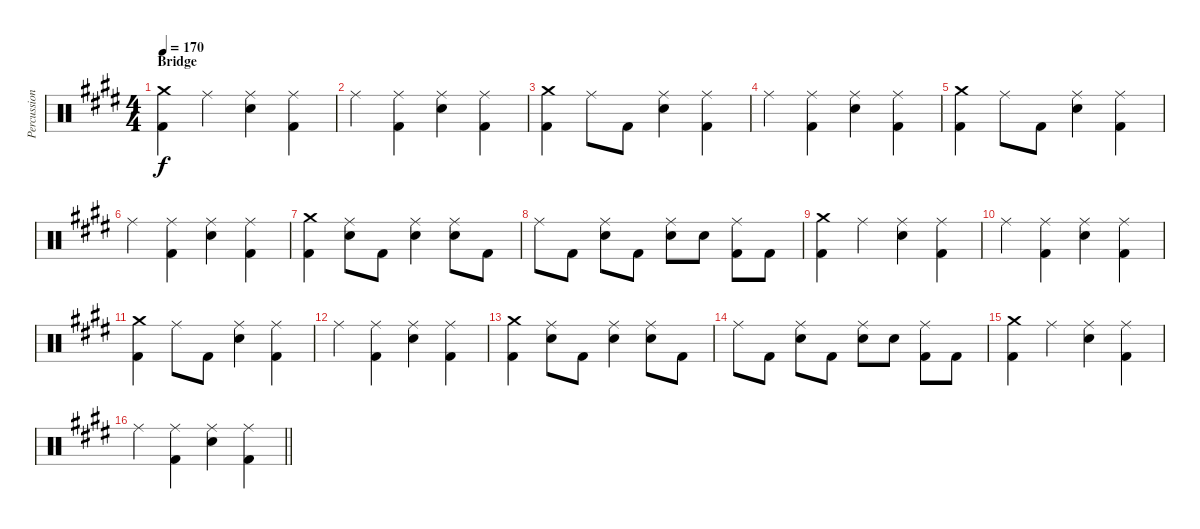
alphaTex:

\track ("Percussion" "Percussion") {instrument percussion}
\staff {score}
\articulation defaults
\ts (4 4)
\section ("" "Bridge")
\tempo 170
\clef neutral
\ks c#minor
("Crash medium (hit)" "Kick (hit) 2").4{dy f} "Ride (middle)".4 ("Ride (middle)" "Snare (hit) 2").4 ("Ride (middle)" "Kick (hit) 2").4 |
"Ride (middle)".4 ("Ride (middle)" "Kick (hit) 2").4 ("Ride (middle)" "Snare (hit) 2").4 ("Ride (middle)" "Kick (hit) 2").4 |
("Crash medium (hit)" "Kick (hit) 2").4 "Ride (middle)".8 "Kick (hit) 2".8 ("Ride (middle)" "Snare (hit) 2").4 ("Ride (middle)" "Kick (hit) 2").4 |
"Ride (middle)".4 ("Ride (middle)" "Kick (hit) 2").4 ("Ride (middle)" "Snare (hit) 2").4 ("Ride (middle)" "Kick (hit) 2").4 |
("Crash medium (hit)" "Kick (hit) 2").4 "Ride (middle)".8 "Kick (hit) 2".8 ("Ride (middle)" "Snare (hit) 2").4 ("Ride (middle)" "Kick (hit) 2").4 |
"Ride (middle)".4 ("Ride (middle)" "Kick (hit) 2").4 ("Ride (middle)" "Snare (hit) 2").4 ("Ride (middle)" "Kick (hit) 2").4 |
("Crash medium (hit)" "Kick (hit) 2").4 ("Ride (middle)" "Snare (hit) 2").8 "Kick (hit) 2".8 ("Ride (middle)" "Snare (hit) 2").4 ("Ride (middle)" "Snare (hit) 2").8 "Kick (hit) 2".8 |
"Ride (middle)".8 "Kick (hit) 2".8 ("Ride (middle)" "Snare (hit) 2").8 "Kick (hit) 2".8 ("Ride (middle)" "Snare (hit) 2").8 "Snare (hit) 2".8 ("Ride (middle)" "Kick (hit) 2").8 "Kick (hit) 2".8 |
("Crash medium (hit)" "Kick (hit) 2").4 "Ride (middle)".4 ("Ride (middle)" "Snare (hit) 2").4 ("Ride (middle)" "Kick (hit) 2").4 |
"Ride (middle)".4 ("Ride (middle)" "Kick (hit) 2").4 ("Ride (middle)" "Snare (hit) 2").4 ("Ride (middle)" "Kick (hit) 2").4 |
("Crash medium (hit)" "Kick (hit) 2").4 "Ride (middle)".8 "Kick (hit) 2".8 ("Ride (middle)" "Snare (hit) 2").4 ("Ride (middle)" "Kick (hit) 2").4 |
"Ride (middle)".4 ("Ride (middle)" "Kick (hit) 2").4 ("Ride (middle)" "Snare (hit) 2").4 ("Ride (middle)" "Kick (hit) 2").4 |
("Crash medium (hit)" "Kick (hit) 2").4 ("Ride (middle)" "Snare (hit) 2").8 "Kick (hit) 2".8 ("Ride (middle)" "Snare (hit) 2").4 ("Ride (middle)" "Snare (hit) 2").8 "Kick (hit) 2".8 |
"Ride (middle)".8 "Kick (hit) 2".8 ("Ride (middle)" "Snare (hit) 2").8 "Kick (hit) 2".8 ("Ride (middle)" "Snare (hit) 2").8 "Snare (hit) 2".8 ("Ride (middle)" "Kick (hit) 2").8 "Kick (hit) 2".8 |
("Crash medium (hit)" "Kick (hit) 2").4 "Ride (middle)".4 ("Ride (middle)" "Snare (hit) 2").4 ("Ride (middle)" "Kick (hit) 2").4 |
\barLineRight lightlight "Ride (middle)".4
("Ride (middle)" "Kick (hit) 2").4 ("Ride (middle)" "Snare (hit) 2").4 ("Ride (middle)" "Kick (hit) 2").4
